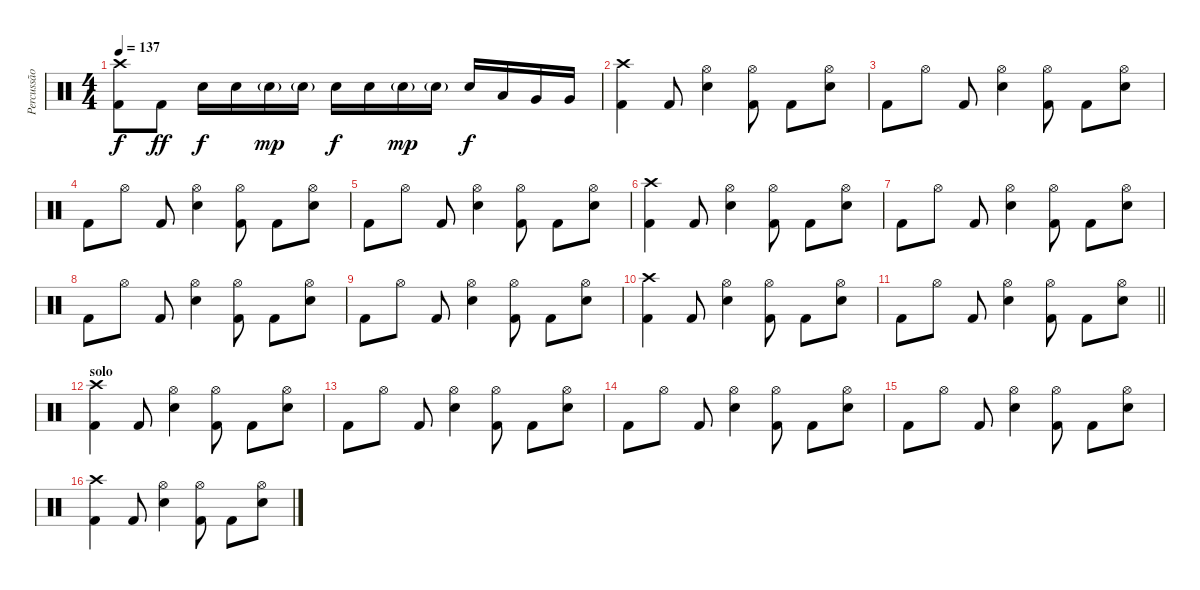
\track ("Percussão" "Percussão") {instrument percussion}
\staff {score}
\articulation defaults
\ts (4 4)
\tempo 137
\clef neutral
\ks c
("Crash high (hit)" "Kick (hit) 2").8{dy f} "Kick (hit) 2".8{dy ff} "Electric Snare (hit)".16{dy f} "Electric Snare (hit)".16 "Electric Snare (hit)"{g}.16{dy mp} "Electric Snare (hit)"{g}.16 "Electric Snare (hit)".16{dy f} "Electric Snare (hit)".16 "Electric Snare (hit)"{g}.16{dy mp} "Electric Snare (hit)"{g}.16 "Electric Snare (hit)".16{dy f} "Low Tom (hit)".16 "Very Low Tom (hit)".16 "Very Low Tom (hit)".16 |
("Kick (hit) 2" "Crash high (hit)").4 "Kick (hit) 2".8 ("Snare (hit) 2" "Hi-Hat (open)").4 ("Kick (hit) 2" "Hi-Hat (open)").8 "Kick (hit) 2".8 ("Snare (hit) 2" "Hi-Hat (open)").8 |
"Kick (hit) 2".8 "Hi-Hat (open)".8 "Kick (hit) 2".8 ("Snare (hit) 2" "Hi-Hat (open)").4 ("Kick (hit) 2" "Hi-Hat (open)").8 "Kick (hit) 2".8 ("Snare (hit) 2" "Hi-Hat (open)").8 |
"Kick (hit) 2".8 "Hi-Hat (open)".8 "Kick (hit) 2".8 ("Snare (hit) 2" "Hi-Hat (open)").4 ("Kick (hit) 2" "Hi-Hat (open)").8 "Kick (hit) 2".8 ("Snare (hit) 2" "Hi-Hat (open)").8 |
"Kick (hit) 2".8 "Hi-Hat (open)".8 "Kick (hit) 2".8 ("Snare (hit) 2" "Hi-Hat (open)").4 ("Kick (hit) 2" "Hi-Hat (open)").8 "Kick (hit) 2".8 ("Snare (hit) 2" "Hi-Hat (open)").8 |
("Kick (hit) 2" "Crash high (hit)").4 "Kick (hit) 2".8 ("Snare (hit) 2" "Hi-Hat (open)").4 ("Kick (hit) 2" "Hi-Hat (open)").8 "Kick (hit) 2".8 ("Snare (hit) 2" "Hi-Hat (open)").8 |
"Kick (hit) 2".8 "Hi-Hat (open)".8 "Kick (hit) 2".8 ("Snare (hit) 2" "Hi-Hat (open)").4 ("Kick (hit) 2" "Hi-Hat (open)").8 "Kick (hit) 2".8 ("Snare (hit) 2" "Hi-Hat (open)").8 |
"Kick (hit) 2".8 "Hi-Hat (open)".8 "Kick (hit) 2".8 ("Snare (hit) 2" "Hi-Hat (open)").4 ("Kick (hit) 2" "Hi-Hat (open)").8 "Kick (hit) 2".8 ("Snare (hit) 2" "Hi-Hat (open)").8 |
"Kick (hit) 2".8 "Hi-Hat (open)".8 "Kick (hit) 2".8 ("Snare (hit) 2" "Hi-Hat (open)").4 ("Kick (hit) 2" "Hi-Hat (open)").8 "Kick (hit) 2".8 ("Snare (hit) 2" "Hi-Hat (open)").8 |
("Kick (hit) 2" "Crash high (hit)").4 "Kick (hit) 2".8 ("Snare (hit) 2" "Hi-Hat (open)").4 ("Kick (hit) 2" "Hi-Hat (open)").8 "Kick (hit) 2".8 ("Snare (hit) 2" "Hi-Hat (open)").8 |
\barLineRight lightlight "Kick (hit) 2".8 "Hi-Hat (open)".8 "Kick (hit) 2".8
("Snare (hit) 2" "Hi-Hat (open)").4 ("Kick (hit) 2" "Hi-Hat (open)").8 "Kick (hit) 2".8 ("Snare (hit) 2" "Hi-Hat (open)").8 |
\section ("" "solo")
("Crash high (hit)" "Kick (hit) 2").4 "Kick (hit) 2".8 ("Hi-Hat (open)" "Electric Snare (hit)").4 ("Hi-Hat (open)" "Kick (hit) 2").8 "Kick (hit) 2".8 ("Hi-Hat (open)" "Electric Snare (hit)").8 |
"Kick (hit) 2".8 "Hi-Hat (open)".8 "Kick (hit) 2".8 ("Hi-Hat (open)" "Electric Snare (hit)").4 ("Hi-Hat (open)" "Kick (hit) 2").8 "Kick (hit) 2".8 ("Hi-Hat (open)" "Electric Snare (hit)").8 |
"Kick (hit) 2".8 "Hi-Hat (open)".8 "Kick (hit) 2".8 ("Hi-Hat (open)" "Electric Snare (hit)").4 ("Hi-Hat (open)" "Kick (hit) 2").8 "Kick (hit) 2".8 ("Hi-Hat (open)" "Electric Snare (hit)").8 |
"Kick (hit) 2".8 "Hi-Hat (open)".8 "Kick (hit) 2".8 ("Hi-Hat (open)" "Electric Snare (hit)").4 ("Hi-Hat (open)" "Kick (hit) 2").8 "Kick (hit) 2".8 ("Hi-Hat (open)" "Electric Snare (hit)").8 |
("Crash high (hit)" "Kick (hit) 2").4 "Kick (hit) 2".8 ("Hi-Hat (open)" "Electric Snare (hit)").4 ("Hi-Hat (open)" "Kick (hit) 2").8 "Kick (hit) 2".8 ("Hi-Hat (open)" "Electric Snare (hit)").8
